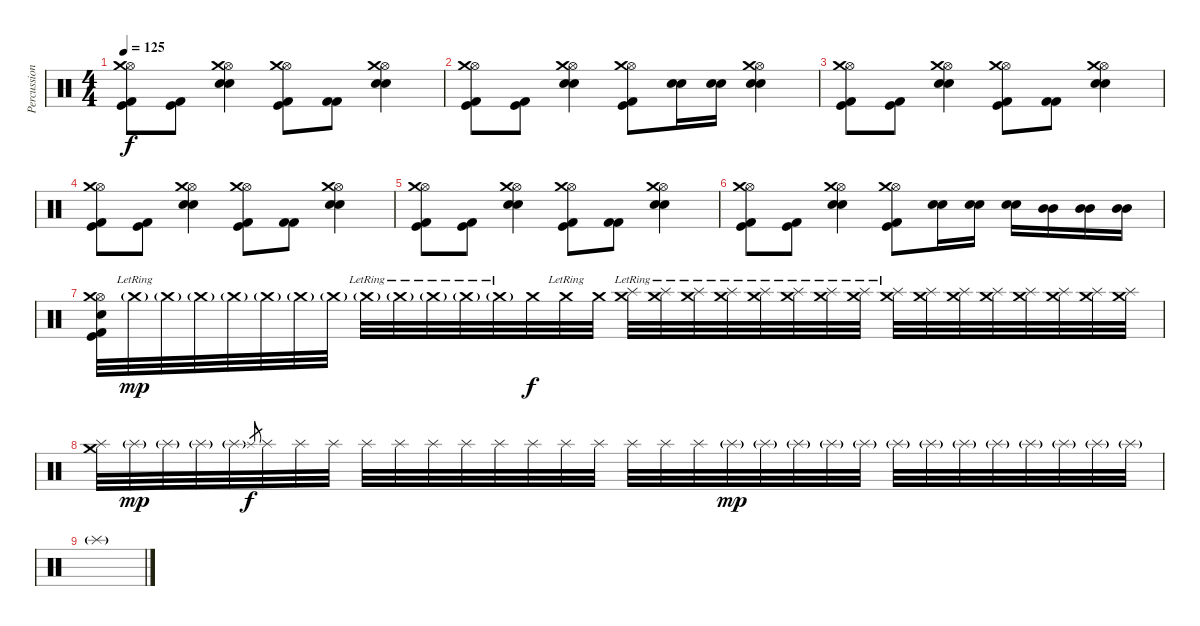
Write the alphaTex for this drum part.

\track ("Percussions" "Percussion") {instrument percussion}
\staff {score}
\articulation defaults
\ts (4 4)
\tempo 125
\clef neutral
\ks c
("Kick (hit)" "Kick (hit) 2" "Hi-Hat (open)" "Crash medium (hit)").8{dy f} ("Kick (hit)" "Kick (hit) 2").8 ("Snare (hit) 2" "Snare (hit) 2" "Hi-Hat (open)" "Crash medium (hit)").4 ("Kick (hit)" "Kick (hit) 2" "Hi-Hat (open)" "Crash medium (hit)").8 ("Kick (hit) 2" "Kick (hit) 2").8 ("Snare (hit) 2" "Snare (hit) 2" "Hi-Hat (open)" "Crash medium (hit)").4 |
("Kick (hit)" "Kick (hit) 2" "Hi-Hat (open)" "Crash medium (hit)").8 ("Kick (hit)" "Kick (hit) 2").8 ("Snare (hit) 2" "Snare (hit) 2" "Hi-Hat (open)" "Crash medium (hit)").4 ("Kick (hit)" "Kick (hit) 2" "Hi-Hat (open)" "Crash medium (hit)").8 ("Snare (hit) 2" "Snare (hit) 2").16 ("Snare (hit) 2" "Snare (hit) 2").16 ("Snare (hit) 2" "Snare (hit) 2" "Hi-Hat (open)" "Crash medium (hit)").4 |
("Kick (hit)" "Kick (hit) 2" "Hi-Hat (open)" "Crash medium (hit)").8 ("Kick (hit)" "Kick (hit) 2").8 ("Snare (hit) 2" "Snare (hit) 2" "Hi-Hat (open)" "Crash medium (hit)").4 ("Kick (hit)" "Kick (hit) 2" "Hi-Hat (open)" "Crash medium (hit)").8 ("Kick (hit) 2" "Kick (hit) 2").8 ("Snare (hit) 2" "Snare (hit) 2" "Hi-Hat (open)" "Crash medium (hit)").4 |
("Kick (hit)" "Kick (hit) 2" "Hi-Hat (open)" "Crash medium (hit)").8 ("Kick (hit)" "Kick (hit) 2").8 ("Snare (hit) 2" "Snare (hit) 2" "Hi-Hat (open)" "Crash medium (hit)").4 ("Kick (hit)" "Kick (hit) 2" "Hi-Hat (open)" "Crash medium (hit)").8 ("Kick (hit) 2" "Kick (hit) 2").8 ("Snare (hit) 2" "Snare (hit) 2" "Hi-Hat (open)" "Crash medium (hit)").4 |
("Kick (hit)" "Kick (hit) 2" "Hi-Hat (open)" "Crash medium (hit)").8 ("Kick (hit)" "Kick (hit) 2").8 ("Snare (hit) 2" "Snare (hit) 2" "Hi-Hat (open)" "Crash medium (hit)").4 ("Kick (hit)" "Kick (hit) 2" "Hi-Hat (open)" "Crash medium (hit)").8 ("Kick (hit) 2" "Kick (hit) 2").8 ("Snare (hit) 2" "Snare (hit) 2" "Hi-Hat (open)" "Crash medium (hit)").4 |
("Kick (hit)" "Kick (hit) 2" "Hi-Hat (open)" "Crash medium (hit)").8 ("Kick (hit)" "Kick (hit) 2").8 ("Snare (hit) 2" "Snare (hit) 2" "Hi-Hat (open)" "Crash medium (hit)").4 ("Kick (hit)" "Kick (hit) 2" "Hi-Hat (open)" "Crash medium (hit)").8 ("Snare (hit) 2" "Snare (hit) 2").16 ("Snare (hit) 2" "Snare (hit) 2").16 ("Snare (hit) 2" "Snare (hit) 2").16 ("Mid Tom (hit)" "Mid Tom (hit)").16 ("Mid Tom (hit)" "Mid Tom (hit)").16 ("Mid Tom (hit)" "Mid Tom (hit)").16 |
("Snare (hit) 2" "Kick (hit)" "Kick (hit) 2" "Hi-Hat (open)" "Crash medium (hit)").32 "Crash medium (hit)"{g lr}.32{dy mp} "Crash medium (hit)"{g}.32 "Crash medium (hit)"{g}.32 "Crash medium (hit)"{g}.32 "Crash medium (hit)"{g}.32 "Crash medium (hit)"{g}.32 "Crash medium (hit)"{g}.32 "Crash medium (hit)"{g lr}.32 "Crash medium (hit)"{g lr}.32 "Crash medium (hit)"{g lr}.32 "Crash medium (hit)"{g lr}.32 "Crash medium (hit)"{g lr}.32 "Crash medium (hit)".32{dy f} "Crash medium (hit)"{lr}.32 "Crash medium (hit)".32 ("Splash (hit)" "Crash medium (hit)"{lr}).32 ("Splash (hit)" "Crash medium (hit)"{lr}).32 ("Splash (hit)" "Crash medium (hit)"{lr}).32 ("Splash (hit)" "Crash medium (hit)"{lr}).32 ("Splash (hit)" "Crash medium (hit)"{lr}).32 ("Splash (hit)" "Crash medium (hit)"{lr}).32 ("Splash (hit)" "Crash medium (hit)"{lr}).32 ("Splash (hit)" "Crash medium (hit)"{lr}).32 ("Splash (hit)" "Crash medium (hit)"{lr}).32 ("Splash (hit)" "Crash medium (hit)").32 ("Splash (hit)" "Crash medium (hit)").32 ("Splash (hit)" "Crash medium (hit)").32 ("Splash (hit)" "Crash medium (hit)").32 ("Splash (hit)" "Crash medium (hit)").32 ("Splash (hit)" "Crash medium (hit)").32 ("Splash (hit)" "Crash medium (hit)").32 |
("Splash (hit)" "Crash medium (hit)").32 "Splash (hit)"{g}.32{dy mp} "Splash (hit)"{g}.32 "Splash (hit)"{g}.32 "Splash (hit)"{g}.32 "Splash (hit)".8{gr dy f} "Splash (hit)".32 "Splash (hit)".32 "Splash (hit)".32 "Splash (hit)".32 "Splash (hit)".32 "Splash (hit)".32 "Splash (hit)".32 "Splash (hit)".32 "Splash (hit)".32 "Splash (hit)".32 "Splash (hit)".32 "Splash (hit)".32 "Splash (hit)".32 "Splash (hit)".32 "Splash (hit)"{g}.32{dy mp} "Splash (hit)"{g}.32 "Splash (hit)"{g}.32 "Splash (hit)"{g}.32 "Splash (hit)"{g}.32 "Splash (hit)"{g}.32 "Splash (hit)"{g}.32 "Splash (hit)"{g}.32 "Splash (hit)"{g}.32 "Splash (hit)"{g}.32 "Splash (hit)"{g}.32 "Splash (hit)"{g}.32 "Splash (hit)"{g}.32 |
"Splash (hit)"{g}.1
